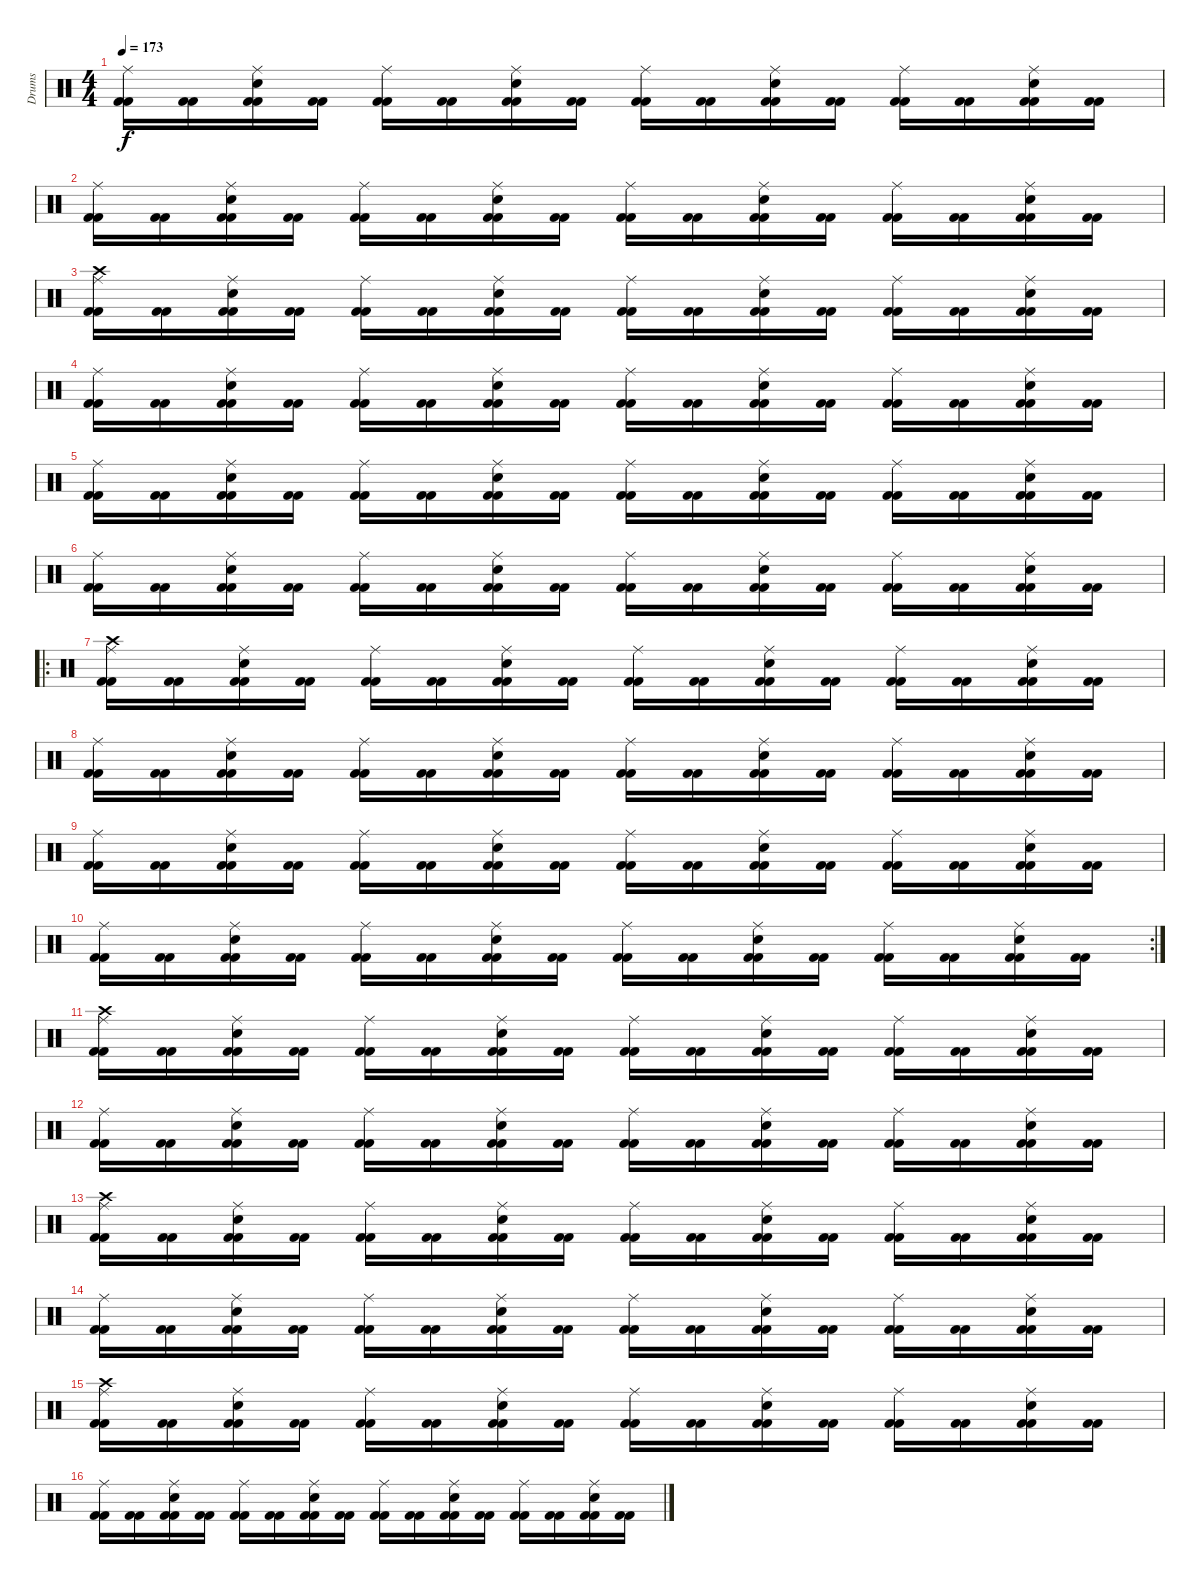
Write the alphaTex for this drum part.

\track ("Drums" "Drums") {instrument percussion}
\staff {score}
\articulation defaults
\ts (4 4)
\tempo 173
\clef neutral
\ks c
("Kick (hit) 2" "Kick (hit) 2" "Ride (middle)").16{dy f} ("Kick (hit) 2" "Kick (hit) 2").16 ("Kick (hit) 2" "Kick (hit) 2" "Ride (middle)" "Electric Snare (hit)").16 ("Kick (hit) 2" "Kick (hit) 2").16 ("Kick (hit) 2" "Kick (hit) 2" "Ride (middle)").16 ("Kick (hit) 2" "Kick (hit) 2").16 ("Kick (hit) 2" "Kick (hit) 2" "Ride (middle)" "Electric Snare (hit)").16 ("Kick (hit) 2" "Kick (hit) 2").16 ("Kick (hit) 2" "Kick (hit) 2" "Ride (middle)").16 ("Kick (hit) 2" "Kick (hit) 2").16 ("Kick (hit) 2" "Kick (hit) 2" "Ride (middle)" "Electric Snare (hit)").16 ("Kick (hit) 2" "Kick (hit) 2").16 ("Kick (hit) 2" "Kick (hit) 2" "Ride (middle)").16 ("Kick (hit) 2" "Kick (hit) 2").16 ("Kick (hit) 2" "Kick (hit) 2" "Ride (middle)" "Electric Snare (hit)").16 ("Kick (hit) 2" "Kick (hit) 2").16 |
("Kick (hit) 2" "Kick (hit) 2" "Ride (middle)").16 ("Kick (hit) 2" "Kick (hit) 2").16 ("Kick (hit) 2" "Kick (hit) 2" "Ride (middle)" "Electric Snare (hit)").16 ("Kick (hit) 2" "Kick (hit) 2").16 ("Kick (hit) 2" "Kick (hit) 2" "Ride (middle)").16 ("Kick (hit) 2" "Kick (hit) 2").16 ("Kick (hit) 2" "Kick (hit) 2" "Ride (middle)" "Electric Snare (hit)").16 ("Kick (hit) 2" "Kick (hit) 2").16 ("Kick (hit) 2" "Kick (hit) 2" "Ride (middle)").16 ("Kick (hit) 2" "Kick (hit) 2").16 ("Kick (hit) 2" "Kick (hit) 2" "Ride (middle)" "Electric Snare (hit)").16 ("Kick (hit) 2" "Kick (hit) 2").16 ("Kick (hit) 2" "Kick (hit) 2" "Ride (middle)").16 ("Kick (hit) 2" "Kick (hit) 2").16 ("Kick (hit) 2" "Kick (hit) 2" "Ride (middle)" "Electric Snare (hit)").16 ("Kick (hit) 2" "Kick (hit) 2").16 |
("Kick (hit) 2" "Kick (hit) 2" "Ride (middle)" "Crash high (hit)").16 ("Kick (hit) 2" "Kick (hit) 2").16 ("Kick (hit) 2" "Kick (hit) 2" "Ride (middle)" "Electric Snare (hit)").16 ("Kick (hit) 2" "Kick (hit) 2").16 ("Kick (hit) 2" "Kick (hit) 2" "Ride (middle)").16 ("Kick (hit) 2" "Kick (hit) 2").16 ("Kick (hit) 2" "Kick (hit) 2" "Ride (middle)" "Electric Snare (hit)").16 ("Kick (hit) 2" "Kick (hit) 2").16 ("Kick (hit) 2" "Kick (hit) 2" "Ride (middle)").16 ("Kick (hit) 2" "Kick (hit) 2").16 ("Kick (hit) 2" "Kick (hit) 2" "Ride (middle)" "Electric Snare (hit)").16 ("Kick (hit) 2" "Kick (hit) 2").16 ("Kick (hit) 2" "Kick (hit) 2" "Ride (middle)").16 ("Kick (hit) 2" "Kick (hit) 2").16 ("Kick (hit) 2" "Kick (hit) 2" "Ride (middle)" "Electric Snare (hit)").16 ("Kick (hit) 2" "Kick (hit) 2").16 |
("Kick (hit) 2" "Kick (hit) 2" "Ride (middle)").16 ("Kick (hit) 2" "Kick (hit) 2").16 ("Kick (hit) 2" "Kick (hit) 2" "Ride (middle)" "Electric Snare (hit)").16 ("Kick (hit) 2" "Kick (hit) 2").16 ("Kick (hit) 2" "Kick (hit) 2" "Ride (middle)").16 ("Kick (hit) 2" "Kick (hit) 2").16 ("Kick (hit) 2" "Kick (hit) 2" "Ride (middle)" "Electric Snare (hit)").16 ("Kick (hit) 2" "Kick (hit) 2").16 ("Kick (hit) 2" "Kick (hit) 2" "Ride (middle)").16 ("Kick (hit) 2" "Kick (hit) 2").16 ("Kick (hit) 2" "Kick (hit) 2" "Ride (middle)" "Electric Snare (hit)").16 ("Kick (hit) 2" "Kick (hit) 2").16 ("Kick (hit) 2" "Kick (hit) 2" "Ride (middle)").16 ("Kick (hit) 2" "Kick (hit) 2").16 ("Kick (hit) 2" "Kick (hit) 2" "Ride (middle)" "Electric Snare (hit)").16 ("Kick (hit) 2" "Kick (hit) 2").16 |
("Kick (hit) 2" "Kick (hit) 2" "Ride (middle)").16 ("Kick (hit) 2" "Kick (hit) 2").16 ("Kick (hit) 2" "Kick (hit) 2" "Ride (middle)" "Electric Snare (hit)").16 ("Kick (hit) 2" "Kick (hit) 2").16 ("Kick (hit) 2" "Kick (hit) 2" "Ride (middle)").16 ("Kick (hit) 2" "Kick (hit) 2").16 ("Kick (hit) 2" "Kick (hit) 2" "Ride (middle)" "Electric Snare (hit)").16 ("Kick (hit) 2" "Kick (hit) 2").16 ("Kick (hit) 2" "Kick (hit) 2" "Ride (middle)").16 ("Kick (hit) 2" "Kick (hit) 2").16 ("Kick (hit) 2" "Kick (hit) 2" "Ride (middle)" "Electric Snare (hit)").16 ("Kick (hit) 2" "Kick (hit) 2").16 ("Kick (hit) 2" "Kick (hit) 2" "Ride (middle)").16 ("Kick (hit) 2" "Kick (hit) 2").16 ("Kick (hit) 2" "Kick (hit) 2" "Ride (middle)" "Electric Snare (hit)").16 ("Kick (hit) 2" "Kick (hit) 2").16 |
("Kick (hit) 2" "Kick (hit) 2" "Ride (middle)").16 ("Kick (hit) 2" "Kick (hit) 2").16 ("Kick (hit) 2" "Kick (hit) 2" "Ride (middle)" "Electric Snare (hit)").16 ("Kick (hit) 2" "Kick (hit) 2").16 ("Kick (hit) 2" "Kick (hit) 2" "Ride (middle)").16 ("Kick (hit) 2" "Kick (hit) 2").16 ("Kick (hit) 2" "Kick (hit) 2" "Ride (middle)" "Electric Snare (hit)").16 ("Kick (hit) 2" "Kick (hit) 2").16 ("Kick (hit) 2" "Kick (hit) 2" "Ride (middle)").16 ("Kick (hit) 2" "Kick (hit) 2").16 ("Kick (hit) 2" "Kick (hit) 2" "Ride (middle)" "Electric Snare (hit)").16 ("Kick (hit) 2" "Kick (hit) 2").16 ("Kick (hit) 2" "Kick (hit) 2" "Ride (middle)").16 ("Kick (hit) 2" "Kick (hit) 2").16 ("Kick (hit) 2" "Kick (hit) 2" "Ride (middle)" "Electric Snare (hit)").16 ("Kick (hit) 2" "Kick (hit) 2").16 |
\ro
("Kick (hit) 2" "Kick (hit) 2" "Ride (middle)" "Crash high (hit)").16 ("Kick (hit) 2" "Kick (hit) 2").16 ("Kick (hit) 2" "Kick (hit) 2" "Ride (middle)" "Electric Snare (hit)").16 ("Kick (hit) 2" "Kick (hit) 2").16 ("Kick (hit) 2" "Kick (hit) 2" "Ride (middle)").16 ("Kick (hit) 2" "Kick (hit) 2").16 ("Kick (hit) 2" "Kick (hit) 2" "Ride (middle)" "Electric Snare (hit)").16 ("Kick (hit) 2" "Kick (hit) 2").16 ("Kick (hit) 2" "Kick (hit) 2" "Ride (middle)").16 ("Kick (hit) 2" "Kick (hit) 2").16 ("Kick (hit) 2" "Kick (hit) 2" "Ride (middle)" "Electric Snare (hit)").16 ("Kick (hit) 2" "Kick (hit) 2").16 ("Kick (hit) 2" "Kick (hit) 2" "Ride (middle)").16 ("Kick (hit) 2" "Kick (hit) 2").16 ("Kick (hit) 2" "Kick (hit) 2" "Ride (middle)" "Electric Snare (hit)").16 ("Kick (hit) 2" "Kick (hit) 2").16 |
("Kick (hit) 2" "Kick (hit) 2" "Ride (middle)").16 ("Kick (hit) 2" "Kick (hit) 2").16 ("Kick (hit) 2" "Kick (hit) 2" "Ride (middle)" "Electric Snare (hit)").16 ("Kick (hit) 2" "Kick (hit) 2").16 ("Kick (hit) 2" "Kick (hit) 2" "Ride (middle)").16 ("Kick (hit) 2" "Kick (hit) 2").16 ("Kick (hit) 2" "Kick (hit) 2" "Ride (middle)" "Electric Snare (hit)").16 ("Kick (hit) 2" "Kick (hit) 2").16 ("Kick (hit) 2" "Kick (hit) 2" "Ride (middle)").16 ("Kick (hit) 2" "Kick (hit) 2").16 ("Kick (hit) 2" "Kick (hit) 2" "Ride (middle)" "Electric Snare (hit)").16 ("Kick (hit) 2" "Kick (hit) 2").16 ("Kick (hit) 2" "Kick (hit) 2" "Ride (middle)").16 ("Kick (hit) 2" "Kick (hit) 2").16 ("Kick (hit) 2" "Kick (hit) 2" "Ride (middle)" "Electric Snare (hit)").16 ("Kick (hit) 2" "Kick (hit) 2").16 |
("Kick (hit) 2" "Kick (hit) 2" "Ride (middle)").16 ("Kick (hit) 2" "Kick (hit) 2").16 ("Kick (hit) 2" "Kick (hit) 2" "Ride (middle)" "Electric Snare (hit)").16 ("Kick (hit) 2" "Kick (hit) 2").16 ("Kick (hit) 2" "Kick (hit) 2" "Ride (middle)").16 ("Kick (hit) 2" "Kick (hit) 2").16 ("Kick (hit) 2" "Kick (hit) 2" "Ride (middle)" "Electric Snare (hit)").16 ("Kick (hit) 2" "Kick (hit) 2").16 ("Kick (hit) 2" "Kick (hit) 2" "Ride (middle)").16 ("Kick (hit) 2" "Kick (hit) 2").16 ("Kick (hit) 2" "Kick (hit) 2" "Ride (middle)" "Electric Snare (hit)").16 ("Kick (hit) 2" "Kick (hit) 2").16 ("Kick (hit) 2" "Kick (hit) 2" "Ride (middle)").16 ("Kick (hit) 2" "Kick (hit) 2").16 ("Kick (hit) 2" "Kick (hit) 2" "Ride (middle)" "Electric Snare (hit)").16 ("Kick (hit) 2" "Kick (hit) 2").16 |
\rc 2
("Kick (hit) 2" "Kick (hit) 2" "Ride (middle)").16 ("Kick (hit) 2" "Kick (hit) 2").16 ("Kick (hit) 2" "Kick (hit) 2" "Ride (middle)" "Electric Snare (hit)").16 ("Kick (hit) 2" "Kick (hit) 2").16 ("Kick (hit) 2" "Kick (hit) 2" "Ride (middle)").16 ("Kick (hit) 2" "Kick (hit) 2").16 ("Kick (hit) 2" "Kick (hit) 2" "Ride (middle)" "Electric Snare (hit)").16 ("Kick (hit) 2" "Kick (hit) 2").16 ("Kick (hit) 2" "Kick (hit) 2" "Ride (middle)").16 ("Kick (hit) 2" "Kick (hit) 2").16 ("Kick (hit) 2" "Kick (hit) 2" "Ride (middle)" "Electric Snare (hit)").16 ("Kick (hit) 2" "Kick (hit) 2").16 ("Kick (hit) 2" "Kick (hit) 2" "Ride (middle)").16 ("Kick (hit) 2" "Kick (hit) 2").16 ("Kick (hit) 2" "Kick (hit) 2" "Ride (middle)" "Electric Snare (hit)").16 ("Kick (hit) 2" "Kick (hit) 2").16 |
("Kick (hit) 2" "Kick (hit) 2" "Ride (middle)" "Crash high (hit)").16 ("Kick (hit) 2" "Kick (hit) 2").16 ("Kick (hit) 2" "Kick (hit) 2" "Ride (middle)" "Electric Snare (hit)").16 ("Kick (hit) 2" "Kick (hit) 2").16 ("Kick (hit) 2" "Kick (hit) 2" "Ride (middle)").16 ("Kick (hit) 2" "Kick (hit) 2").16 ("Kick (hit) 2" "Kick (hit) 2" "Ride (middle)" "Electric Snare (hit)").16 ("Kick (hit) 2" "Kick (hit) 2").16 ("Kick (hit) 2" "Kick (hit) 2" "Ride (middle)").16 ("Kick (hit) 2" "Kick (hit) 2").16 ("Kick (hit) 2" "Kick (hit) 2" "Ride (middle)" "Electric Snare (hit)").16 ("Kick (hit) 2" "Kick (hit) 2").16 ("Kick (hit) 2" "Kick (hit) 2" "Ride (middle)").16 ("Kick (hit) 2" "Kick (hit) 2").16 ("Kick (hit) 2" "Kick (hit) 2" "Ride (middle)" "Electric Snare (hit)").16 ("Kick (hit) 2" "Kick (hit) 2").16 |
("Kick (hit) 2" "Kick (hit) 2" "Ride (middle)").16 ("Kick (hit) 2" "Kick (hit) 2").16 ("Kick (hit) 2" "Kick (hit) 2" "Ride (middle)" "Electric Snare (hit)").16 ("Kick (hit) 2" "Kick (hit) 2").16 ("Kick (hit) 2" "Kick (hit) 2" "Ride (middle)").16 ("Kick (hit) 2" "Kick (hit) 2").16 ("Kick (hit) 2" "Kick (hit) 2" "Ride (middle)" "Electric Snare (hit)").16 ("Kick (hit) 2" "Kick (hit) 2").16 ("Kick (hit) 2" "Kick (hit) 2" "Ride (middle)").16 ("Kick (hit) 2" "Kick (hit) 2").16 ("Kick (hit) 2" "Kick (hit) 2" "Ride (middle)" "Electric Snare (hit)").16 ("Kick (hit) 2" "Kick (hit) 2").16 ("Kick (hit) 2" "Kick (hit) 2" "Ride (middle)").16 ("Kick (hit) 2" "Kick (hit) 2").16 ("Kick (hit) 2" "Kick (hit) 2" "Ride (middle)" "Electric Snare (hit)").16 ("Kick (hit) 2" "Kick (hit) 2").16 |
("Kick (hit) 2" "Kick (hit) 2" "Ride (middle)" "Crash high (hit)").16 ("Kick (hit) 2" "Kick (hit) 2").16 ("Kick (hit) 2" "Kick (hit) 2" "Ride (middle)" "Electric Snare (hit)").16 ("Kick (hit) 2" "Kick (hit) 2").16 ("Kick (hit) 2" "Kick (hit) 2" "Ride (middle)").16 ("Kick (hit) 2" "Kick (hit) 2").16 ("Kick (hit) 2" "Kick (hit) 2" "Ride (middle)" "Electric Snare (hit)").16 ("Kick (hit) 2" "Kick (hit) 2").16 ("Kick (hit) 2" "Kick (hit) 2" "Ride (middle)").16 ("Kick (hit) 2" "Kick (hit) 2").16 ("Kick (hit) 2" "Kick (hit) 2" "Ride (middle)" "Electric Snare (hit)").16 ("Kick (hit) 2" "Kick (hit) 2").16 ("Kick (hit) 2" "Kick (hit) 2" "Ride (middle)").16 ("Kick (hit) 2" "Kick (hit) 2").16 ("Kick (hit) 2" "Kick (hit) 2" "Ride (middle)" "Electric Snare (hit)").16 ("Kick (hit) 2" "Kick (hit) 2").16 |
("Kick (hit) 2" "Kick (hit) 2" "Ride (middle)").16 ("Kick (hit) 2" "Kick (hit) 2").16 ("Kick (hit) 2" "Kick (hit) 2" "Ride (middle)" "Electric Snare (hit)").16 ("Kick (hit) 2" "Kick (hit) 2").16 ("Kick (hit) 2" "Kick (hit) 2" "Ride (middle)").16 ("Kick (hit) 2" "Kick (hit) 2").16 ("Kick (hit) 2" "Kick (hit) 2" "Ride (middle)" "Electric Snare (hit)").16 ("Kick (hit) 2" "Kick (hit) 2").16 ("Kick (hit) 2" "Kick (hit) 2" "Ride (middle)").16 ("Kick (hit) 2" "Kick (hit) 2").16 ("Kick (hit) 2" "Kick (hit) 2" "Ride (middle)" "Electric Snare (hit)").16 ("Kick (hit) 2" "Kick (hit) 2").16 ("Kick (hit) 2" "Kick (hit) 2" "Ride (middle)").16 ("Kick (hit) 2" "Kick (hit) 2").16 ("Kick (hit) 2" "Kick (hit) 2" "Ride (middle)" "Electric Snare (hit)").16 ("Kick (hit) 2" "Kick (hit) 2").16 |
("Kick (hit) 2" "Kick (hit) 2" "Ride (middle)" "Crash high (hit)").16 ("Kick (hit) 2" "Kick (hit) 2").16 ("Kick (hit) 2" "Kick (hit) 2" "Ride (middle)" "Electric Snare (hit)").16 ("Kick (hit) 2" "Kick (hit) 2").16 ("Kick (hit) 2" "Kick (hit) 2" "Ride (middle)").16 ("Kick (hit) 2" "Kick (hit) 2").16 ("Kick (hit) 2" "Kick (hit) 2" "Ride (middle)" "Electric Snare (hit)").16 ("Kick (hit) 2" "Kick (hit) 2").16 ("Kick (hit) 2" "Kick (hit) 2" "Ride (middle)").16 ("Kick (hit) 2" "Kick (hit) 2").16 ("Kick (hit) 2" "Kick (hit) 2" "Ride (middle)" "Electric Snare (hit)").16 ("Kick (hit) 2" "Kick (hit) 2").16 ("Kick (hit) 2" "Kick (hit) 2" "Ride (middle)").16 ("Kick (hit) 2" "Kick (hit) 2").16 ("Kick (hit) 2" "Kick (hit) 2" "Ride (middle)" "Electric Snare (hit)").16 ("Kick (hit) 2" "Kick (hit) 2").16 |
("Kick (hit) 2" "Kick (hit) 2" "Ride (middle)").16 ("Kick (hit) 2" "Kick (hit) 2").16 ("Kick (hit) 2" "Kick (hit) 2" "Ride (middle)" "Electric Snare (hit)").16 ("Kick (hit) 2" "Kick (hit) 2").16 ("Kick (hit) 2" "Kick (hit) 2" "Ride (middle)").16 ("Kick (hit) 2" "Kick (hit) 2").16 ("Kick (hit) 2" "Kick (hit) 2" "Ride (middle)" "Electric Snare (hit)").16 ("Kick (hit) 2" "Kick (hit) 2").16 ("Kick (hit) 2" "Kick (hit) 2" "Ride (middle)").16 ("Kick (hit) 2" "Kick (hit) 2").16 ("Kick (hit) 2" "Kick (hit) 2" "Ride (middle)" "Electric Snare (hit)").16 ("Kick (hit) 2" "Kick (hit) 2").16 ("Kick (hit) 2" "Kick (hit) 2" "Ride (middle)").16 ("Kick (hit) 2" "Kick (hit) 2").16 ("Kick (hit) 2" "Kick (hit) 2" "Ride (middle)" "Electric Snare (hit)").16 ("Kick (hit) 2" "Kick (hit) 2").16
